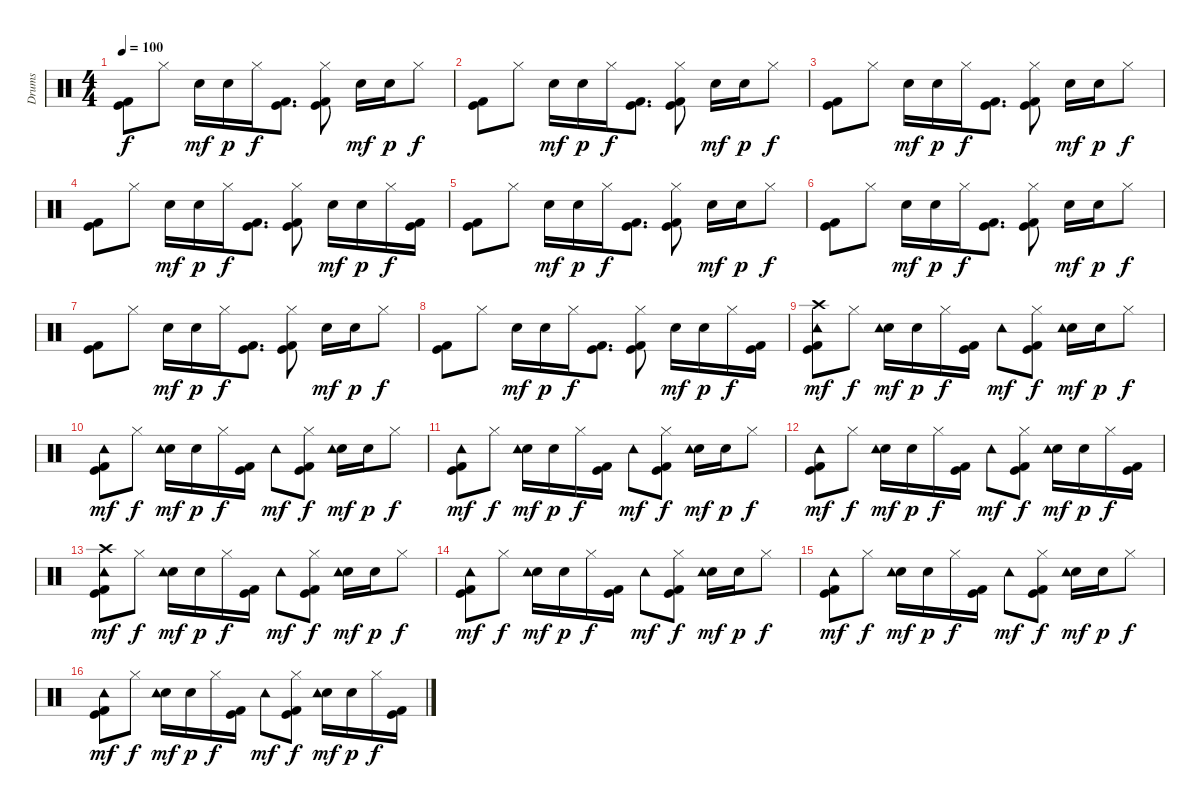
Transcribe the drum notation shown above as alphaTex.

\track ("Drums" "Drums") {instrument percussion}
\staff {score}
\articulation defaults
\ts (4 4)
\tempo 100
\clef neutral
\ks c
("Kick (hit)" "Kick (hit) 2").8{dy f} "Hi-Hat (closed)".8 "Hand Clap (hit)".16{dy mf} "Hand Clap (hit)".16{dy p} "Hi-Hat (closed)".16{dy f} ("Kick (hit)" "Kick (hit) 2").8{d} ("Kick (hit)" "Kick (hit) 2" "Hi-Hat (closed)").8 "Hand Clap (hit)".16{dy mf} "Hand Clap (hit)".16{dy p} "Hi-Hat (closed)".8{dy f} |
("Kick (hit)" "Kick (hit) 2").8 "Hi-Hat (closed)".8 "Hand Clap (hit)".16{dy mf} "Hand Clap (hit)".16{dy p} "Hi-Hat (closed)".16{dy f} ("Kick (hit)" "Kick (hit) 2").8{d} ("Kick (hit)" "Kick (hit) 2" "Hi-Hat (closed)").8 "Hand Clap (hit)".16{dy mf} "Hand Clap (hit)".16{dy p} "Hi-Hat (closed)".8{dy f} |
("Kick (hit)" "Kick (hit) 2").8 "Hi-Hat (closed)".8 "Hand Clap (hit)".16{dy mf} "Hand Clap (hit)".16{dy p} "Hi-Hat (closed)".16{dy f} ("Kick (hit)" "Kick (hit) 2").8{d} ("Kick (hit)" "Kick (hit) 2" "Hi-Hat (closed)").8 "Hand Clap (hit)".16{dy mf} "Hand Clap (hit)".16{dy p} "Hi-Hat (closed)".8{dy f} |
("Kick (hit)" "Kick (hit) 2").8 "Hi-Hat (closed)".8 "Hand Clap (hit)".16{dy mf} "Hand Clap (hit)".16{dy p} "Hi-Hat (closed)".16{dy f} ("Kick (hit)" "Kick (hit) 2").8{d} ("Kick (hit)" "Kick (hit) 2" "Hi-Hat (closed)").8 "Hand Clap (hit)".16{dy mf} "Hand Clap (hit)".16{dy p} "Hi-Hat (closed)".16{dy f} ("Kick (hit)" "Kick (hit) 2").16 |
("Kick (hit)" "Kick (hit) 2").8 "Hi-Hat (closed)".8 "Hand Clap (hit)".16{dy mf} "Hand Clap (hit)".16{dy p} "Hi-Hat (closed)".16{dy f} ("Kick (hit)" "Kick (hit) 2").8{d} ("Kick (hit)" "Kick (hit) 2" "Hi-Hat (closed)").8 "Hand Clap (hit)".16{dy mf} "Hand Clap (hit)".16{dy p} "Hi-Hat (closed)".8{dy f} |
("Kick (hit)" "Kick (hit) 2").8 "Hi-Hat (closed)".8 "Hand Clap (hit)".16{dy mf} "Hand Clap (hit)".16{dy p} "Hi-Hat (closed)".16{dy f} ("Kick (hit)" "Kick (hit) 2").8{d} ("Kick (hit)" "Kick (hit) 2" "Hi-Hat (closed)").8 "Hand Clap (hit)".16{dy mf} "Hand Clap (hit)".16{dy p} "Hi-Hat (closed)".8{dy f} |
("Kick (hit)" "Kick (hit) 2").8 "Hi-Hat (closed)".8 "Hand Clap (hit)".16{dy mf} "Hand Clap (hit)".16{dy p} "Hi-Hat (closed)".16{dy f} ("Kick (hit)" "Kick (hit) 2").8{d} ("Kick (hit)" "Kick (hit) 2" "Hi-Hat (closed)").8 "Hand Clap (hit)".16{dy mf} "Hand Clap (hit)".16{dy p} "Hi-Hat (closed)".8{dy f} |
("Kick (hit)" "Kick (hit) 2").8 "Hi-Hat (closed)".8 "Hand Clap (hit)".16{dy mf} "Hand Clap (hit)".16{dy p} "Hi-Hat (closed)".16{dy f} ("Kick (hit)" "Kick (hit) 2").8{d} ("Kick (hit)" "Kick (hit) 2" "Hi-Hat (closed)").8 "Hand Clap (hit)".16{dy mf} "Hand Clap (hit)".16{dy p} "Hi-Hat (closed)".16{dy f} ("Kick (hit)" "Kick (hit) 2").16 |
("Kick (hit)" "Kick (hit) 2" "Crash high (hit)" "Tambourine (hit)").8{dy mf} "Hi-Hat (closed)".8{dy f} ("Hand Clap (hit)" "Tambourine (hit)").16{dy mf} "Hand Clap (hit)".16{dy p} "Hi-Hat (closed)".16{dy f} ("Kick (hit)" "Kick (hit) 2").16 "Tambourine (hit)".8{dy mf} ("Kick (hit)" "Kick (hit) 2" "Hi-Hat (closed)").8{dy f} ("Hand Clap (hit)" "Tambourine (hit)").16{dy mf} "Hand Clap (hit)".16{dy p} "Hi-Hat (closed)".8{dy f} |
("Kick (hit)" "Kick (hit) 2" "Tambourine (hit)").8{dy mf} "Hi-Hat (closed)".8{dy f} ("Hand Clap (hit)" "Tambourine (hit)").16{dy mf} "Hand Clap (hit)".16{dy p} "Hi-Hat (closed)".16{dy f} ("Kick (hit)" "Kick (hit) 2").16 "Tambourine (hit)".8{dy mf} ("Kick (hit)" "Kick (hit) 2" "Hi-Hat (closed)").8{dy f} ("Hand Clap (hit)" "Tambourine (hit)").16{dy mf} "Hand Clap (hit)".16{dy p} "Hi-Hat (closed)".8{dy f} |
("Kick (hit)" "Kick (hit) 2" "Tambourine (hit)").8{dy mf} "Hi-Hat (closed)".8{dy f} ("Hand Clap (hit)" "Tambourine (hit)").16{dy mf} "Hand Clap (hit)".16{dy p} "Hi-Hat (closed)".16{dy f} ("Kick (hit)" "Kick (hit) 2").16 "Tambourine (hit)".8{dy mf} ("Kick (hit)" "Kick (hit) 2" "Hi-Hat (closed)").8{dy f} ("Hand Clap (hit)" "Tambourine (hit)").16{dy mf} "Hand Clap (hit)".16{dy p} "Hi-Hat (closed)".8{dy f} |
("Kick (hit)" "Kick (hit) 2" "Tambourine (hit)").8{dy mf} "Hi-Hat (closed)".8{dy f} ("Hand Clap (hit)" "Tambourine (hit)").16{dy mf} "Hand Clap (hit)".16{dy p} "Hi-Hat (closed)".16{dy f} ("Kick (hit)" "Kick (hit) 2").16 "Tambourine (hit)".8{dy mf} ("Kick (hit)" "Kick (hit) 2" "Hi-Hat (closed)").8{dy f} ("Hand Clap (hit)" "Tambourine (hit)").16{dy mf} "Hand Clap (hit)".16{dy p} "Hi-Hat (closed)".16{dy f} ("Kick (hit)" "Kick (hit) 2").16 |
("Kick (hit)" "Kick (hit) 2" "Crash high (hit)" "Tambourine (hit)").8{dy mf} "Hi-Hat (closed)".8{dy f} ("Hand Clap (hit)" "Tambourine (hit)").16{dy mf} "Hand Clap (hit)".16{dy p} "Hi-Hat (closed)".16{dy f} ("Kick (hit)" "Kick (hit) 2").16 "Tambourine (hit)".8{dy mf} ("Kick (hit)" "Kick (hit) 2" "Hi-Hat (closed)").8{dy f} ("Hand Clap (hit)" "Tambourine (hit)").16{dy mf} "Hand Clap (hit)".16{dy p} "Hi-Hat (closed)".8{dy f} |
("Kick (hit)" "Kick (hit) 2" "Tambourine (hit)").8{dy mf} "Hi-Hat (closed)".8{dy f} ("Hand Clap (hit)" "Tambourine (hit)").16{dy mf} "Hand Clap (hit)".16{dy p} "Hi-Hat (closed)".16{dy f} ("Kick (hit)" "Kick (hit) 2").16 "Tambourine (hit)".8{dy mf} ("Kick (hit)" "Kick (hit) 2" "Hi-Hat (closed)").8{dy f} ("Hand Clap (hit)" "Tambourine (hit)").16{dy mf} "Hand Clap (hit)".16{dy p} "Hi-Hat (closed)".8{dy f} |
("Kick (hit)" "Kick (hit) 2" "Tambourine (hit)").8{dy mf} "Hi-Hat (closed)".8{dy f} ("Hand Clap (hit)" "Tambourine (hit)").16{dy mf} "Hand Clap (hit)".16{dy p} "Hi-Hat (closed)".16{dy f} ("Kick (hit)" "Kick (hit) 2").16 "Tambourine (hit)".8{dy mf} ("Kick (hit)" "Kick (hit) 2" "Hi-Hat (closed)").8{dy f} ("Hand Clap (hit)" "Tambourine (hit)").16{dy mf} "Hand Clap (hit)".16{dy p} "Hi-Hat (closed)".8{dy f} |
("Kick (hit)" "Kick (hit) 2" "Tambourine (hit)").8{dy mf} "Hi-Hat (closed)".8{dy f} ("Hand Clap (hit)" "Tambourine (hit)").16{dy mf} "Hand Clap (hit)".16{dy p} "Hi-Hat (closed)".16{dy f} ("Kick (hit)" "Kick (hit) 2").16 "Tambourine (hit)".8{dy mf} ("Kick (hit)" "Kick (hit) 2" "Hi-Hat (closed)").8{dy f} ("Hand Clap (hit)" "Tambourine (hit)").16{dy mf} "Hand Clap (hit)".16{dy p} "Hi-Hat (closed)".16{dy f} ("Kick (hit)" "Kick (hit) 2").16
